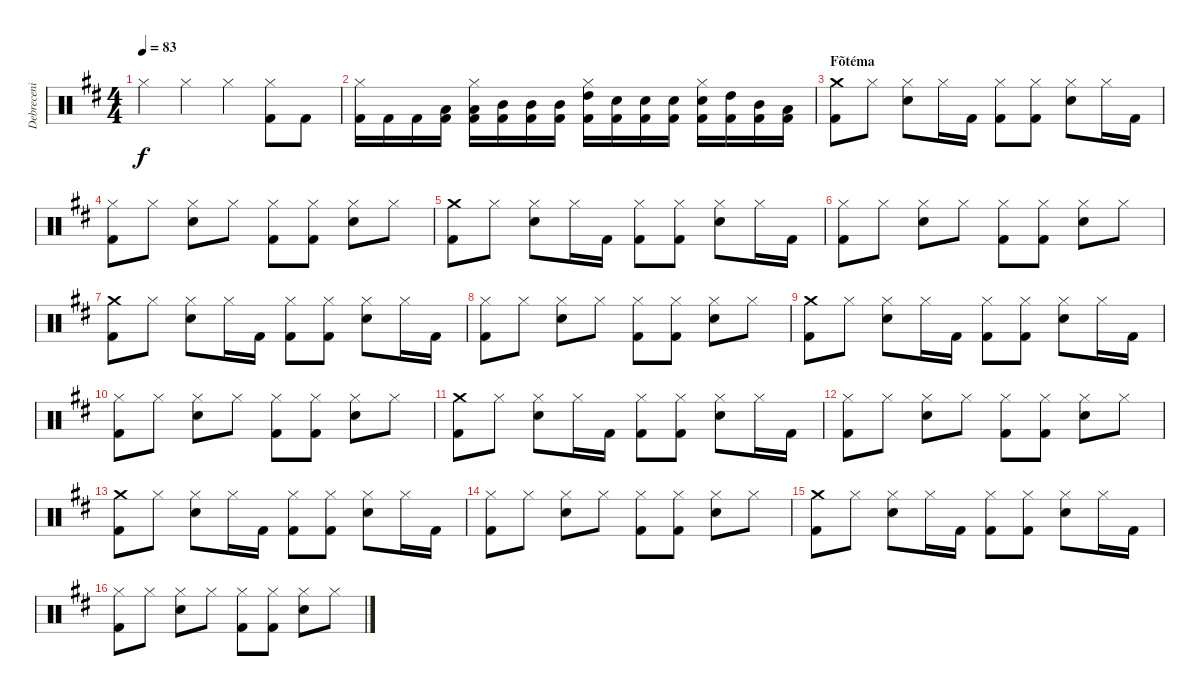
\track ("Debreceni Ferenc \"Ciki\" Dob" "Debreceni ") {instrument percussion}
\staff {score}
\articulation defaults
\ts (4 4)
\tempo 83
\clef neutral
\ks d "Hi-Hat (closed)".4{dy f} "Hi-Hat (closed)".4 "Hi-Hat (closed)".4
("Hi-Hat (closed)" "Kick (hit) 2").8 "Kick (hit) 2".8 |
("Hi-Hat (closed)" "Kick (hit) 2").16 "Kick (hit) 2".16 "Kick (hit) 2".16 ("Low Tom (hit)" "Kick (hit) 2").16 ("Hi-Hat (closed)" "Low Tom (hit)" "Kick (hit) 2").16 ("Mid Tom (hit)" "Kick (hit) 2").16 ("Mid Tom (hit)" "Kick (hit) 2").16 ("Mid Tom (hit)" "Kick (hit) 2").16 ("Hi-Hat (closed)" "High Tom (hit)" "Kick (hit) 2").16 ("Snare (hit) 2" "Kick (hit) 2").16 ("Snare (hit) 2" "Kick (hit) 2").16 ("Snare (hit) 2" "Kick (hit) 2").16 ("Hi-Hat (closed)" "Snare (hit) 2" "Kick (hit) 2").16 ("High Tom (hit)" "Kick (hit) 2").16 ("Mid Tom (hit)" "Kick (hit) 2").16 ("Low Tom (hit)" "Kick (hit) 2").16 |
\section ("" "Fõtéma")
("Crash medium (hit)" "Kick (hit) 2").8 "Hi-Hat (closed)".8 ("Hi-Hat (closed)" "Snare (hit) 2").8 "Hi-Hat (closed)".16 "Kick (hit) 2".16 ("Hi-Hat (closed)" "Kick (hit) 2").8 ("Hi-Hat (closed)" "Kick (hit) 2").8 ("Hi-Hat (closed)" "Snare (hit) 2").8 "Hi-Hat (closed)".16 "Kick (hit) 2".16 |
("Hi-Hat (closed)" "Kick (hit) 2").8 "Hi-Hat (closed)".8 ("Hi-Hat (closed)" "Snare (hit) 2").8 "Hi-Hat (closed)".8 ("Hi-Hat (closed)" "Kick (hit) 2").8 ("Hi-Hat (closed)" "Kick (hit) 2").8 ("Hi-Hat (closed)" "Snare (hit) 2").8 "Hi-Hat (closed)".8 |
("Crash medium (hit)" "Kick (hit) 2").8 "Hi-Hat (closed)".8 ("Hi-Hat (closed)" "Snare (hit) 2").8 "Hi-Hat (closed)".16 "Kick (hit) 2".16 ("Hi-Hat (closed)" "Kick (hit) 2").8 ("Hi-Hat (closed)" "Kick (hit) 2").8 ("Hi-Hat (closed)" "Snare (hit) 2").8 "Hi-Hat (closed)".16 "Kick (hit) 2".16 |
("Hi-Hat (closed)" "Kick (hit) 2").8 "Hi-Hat (closed)".8 ("Hi-Hat (closed)" "Snare (hit) 2").8 "Hi-Hat (closed)".8 ("Hi-Hat (closed)" "Kick (hit) 2").8 ("Hi-Hat (closed)" "Kick (hit) 2").8 ("Hi-Hat (closed)" "Snare (hit) 2").8 "Hi-Hat (closed)".8 |
("Crash medium (hit)" "Kick (hit) 2").8 "Hi-Hat (closed)".8 ("Hi-Hat (closed)" "Snare (hit) 2").8 "Hi-Hat (closed)".16 "Kick (hit) 2".16 ("Hi-Hat (closed)" "Kick (hit) 2").8 ("Hi-Hat (closed)" "Kick (hit) 2").8 ("Hi-Hat (closed)" "Snare (hit) 2").8 "Hi-Hat (closed)".16 "Kick (hit) 2".16 |
("Hi-Hat (closed)" "Kick (hit) 2").8 "Hi-Hat (closed)".8 ("Hi-Hat (closed)" "Snare (hit) 2").8 "Hi-Hat (closed)".8 ("Hi-Hat (closed)" "Kick (hit) 2").8 ("Hi-Hat (closed)" "Kick (hit) 2").8 ("Hi-Hat (closed)" "Snare (hit) 2").8 "Hi-Hat (closed)".8 |
("Crash medium (hit)" "Kick (hit) 2").8 "Hi-Hat (closed)".8 ("Hi-Hat (closed)" "Snare (hit) 2").8 "Hi-Hat (closed)".16 "Kick (hit) 2".16 ("Hi-Hat (closed)" "Kick (hit) 2").8 ("Hi-Hat (closed)" "Kick (hit) 2").8 ("Hi-Hat (closed)" "Snare (hit) 2").8 "Hi-Hat (closed)".16 "Kick (hit) 2".16 |
("Hi-Hat (closed)" "Kick (hit) 2").8 "Hi-Hat (closed)".8 ("Hi-Hat (closed)" "Snare (hit) 2").8 "Hi-Hat (closed)".8 ("Hi-Hat (closed)" "Kick (hit) 2").8 ("Hi-Hat (closed)" "Kick (hit) 2").8 ("Hi-Hat (closed)" "Snare (hit) 2").8 "Hi-Hat (closed)".8 |
("Crash medium (hit)" "Kick (hit) 2").8 "Hi-Hat (closed)".8 ("Hi-Hat (closed)" "Snare (hit) 2").8 "Hi-Hat (closed)".16 "Kick (hit) 2".16 ("Hi-Hat (closed)" "Kick (hit) 2").8 ("Hi-Hat (closed)" "Kick (hit) 2").8 ("Hi-Hat (closed)" "Snare (hit) 2").8 "Hi-Hat (closed)".16 "Kick (hit) 2".16 |
("Hi-Hat (closed)" "Kick (hit) 2").8 "Hi-Hat (closed)".8 ("Hi-Hat (closed)" "Snare (hit) 2").8 "Hi-Hat (closed)".8 ("Hi-Hat (closed)" "Kick (hit) 2").8 ("Hi-Hat (closed)" "Kick (hit) 2").8 ("Hi-Hat (closed)" "Snare (hit) 2").8 "Hi-Hat (closed)".8 |
("Crash medium (hit)" "Kick (hit) 2").8 "Hi-Hat (closed)".8 ("Hi-Hat (closed)" "Snare (hit) 2").8 "Hi-Hat (closed)".16 "Kick (hit) 2".16 ("Hi-Hat (closed)" "Kick (hit) 2").8 ("Hi-Hat (closed)" "Kick (hit) 2").8 ("Hi-Hat (closed)" "Snare (hit) 2").8 "Hi-Hat (closed)".16 "Kick (hit) 2".16 |
("Hi-Hat (closed)" "Kick (hit) 2").8 "Hi-Hat (closed)".8 ("Hi-Hat (closed)" "Snare (hit) 2").8 "Hi-Hat (closed)".8 ("Hi-Hat (closed)" "Kick (hit) 2").8 ("Hi-Hat (closed)" "Kick (hit) 2").8 ("Hi-Hat (closed)" "Snare (hit) 2").8 "Hi-Hat (closed)".8 |
("Crash medium (hit)" "Kick (hit) 2").8 "Hi-Hat (closed)".8 ("Hi-Hat (closed)" "Snare (hit) 2").8 "Hi-Hat (closed)".16 "Kick (hit) 2".16 ("Hi-Hat (closed)" "Kick (hit) 2").8 ("Hi-Hat (closed)" "Kick (hit) 2").8 ("Hi-Hat (closed)" "Snare (hit) 2").8 "Hi-Hat (closed)".16 "Kick (hit) 2".16 |
("Hi-Hat (closed)" "Kick (hit) 2").8 "Hi-Hat (closed)".8 ("Hi-Hat (closed)" "Snare (hit) 2").8 "Hi-Hat (closed)".8 ("Hi-Hat (closed)" "Kick (hit) 2").8 ("Hi-Hat (closed)" "Kick (hit) 2").8 ("Hi-Hat (closed)" "Snare (hit) 2").8 "Hi-Hat (closed)".8
